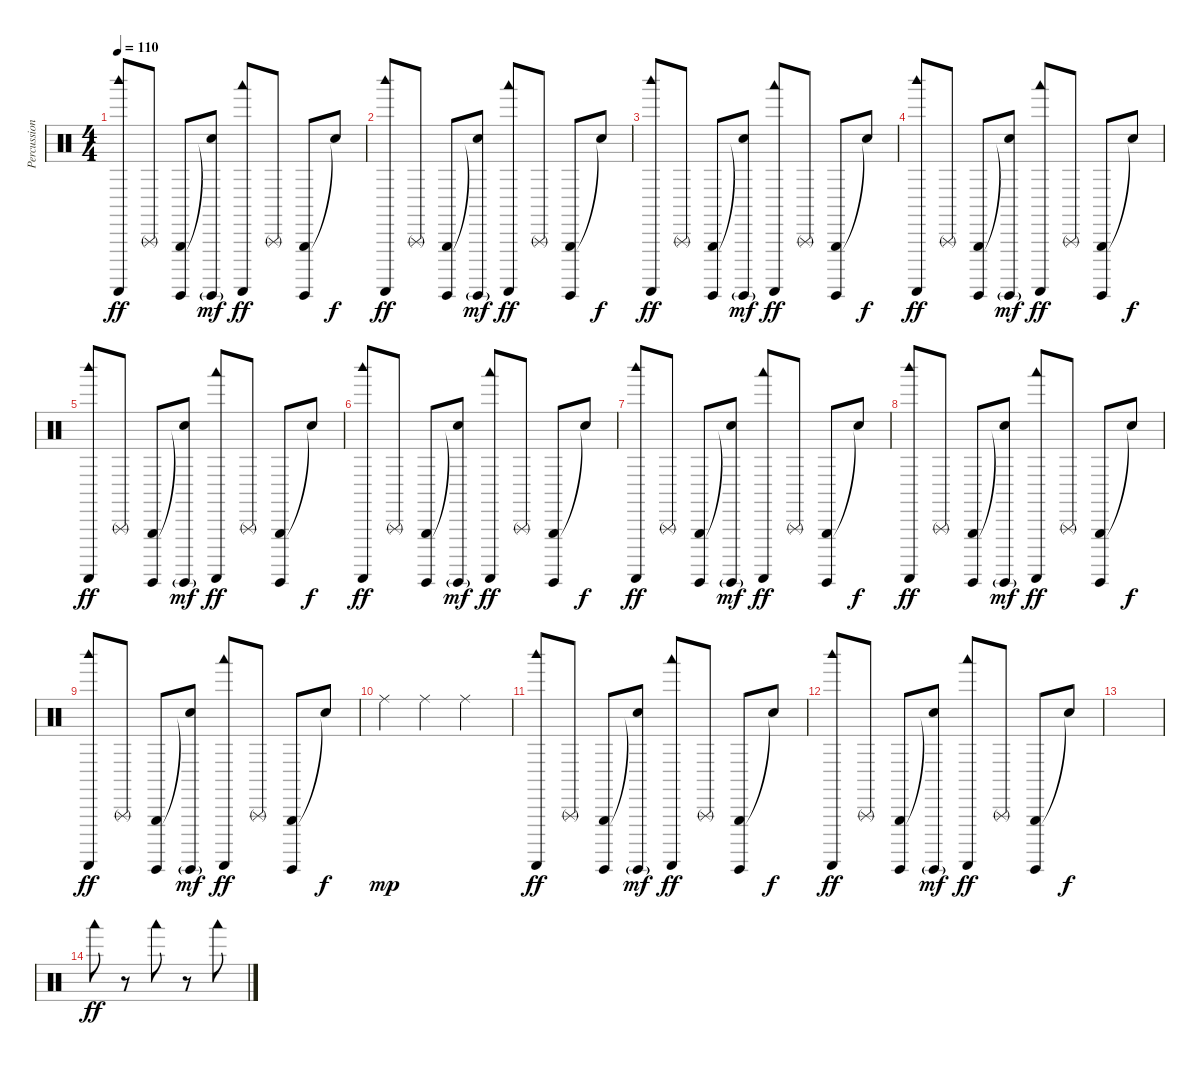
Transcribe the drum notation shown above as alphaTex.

\track ("Percussion" "Percussion") {instrument percussion}
\staff {score}
\articulation defaults
\ts (4 4)
\tempo 110
\clef neutral
\ks c
("Woodblock high (hit)" "Guiro (scrap-return)").8{dy ff} "Triangle (rnute)".8 ("Triangle (hit)" "Guiro (hit)").8 ("Snare (hit)"{t} "Guiro (hit)"{g}).8{dy mf} ("Woodblock low (hit)" "Guiro (scrap-return)").8{dy ff} "Triangle (rnute)".8 ("Triangle (hit)" "Guiro (hit)").8 "Snare (hit)"{t}.8{dy f} |
("Woodblock high (hit)" "Guiro (scrap-return)").8{dy ff} "Triangle (rnute)".8 ("Triangle (hit)" "Guiro (hit)").8 ("Snare (hit)"{t} "Guiro (hit)"{g}).8{dy mf} ("Woodblock low (hit)" "Guiro (scrap-return)").8{dy ff} "Triangle (rnute)".8 ("Triangle (hit)" "Guiro (hit)").8 "Snare (hit)"{t}.8{dy f} |
("Woodblock high (hit)" "Guiro (scrap-return)").8{dy ff} "Triangle (rnute)".8 ("Triangle (hit)" "Guiro (hit)").8 ("Snare (hit)"{t} "Guiro (hit)"{g}).8{dy mf} ("Woodblock low (hit)" "Guiro (scrap-return)").8{dy ff} "Triangle (rnute)".8 ("Triangle (hit)" "Guiro (hit)").8 "Snare (hit)"{t}.8{dy f} |
("Woodblock high (hit)" "Guiro (scrap-return)").8{dy ff} "Triangle (rnute)".8 ("Triangle (hit)" "Guiro (hit)").8 ("Snare (hit)"{t} "Guiro (hit)"{g}).8{dy mf} ("Woodblock low (hit)" "Guiro (scrap-return)").8{dy ff} "Triangle (rnute)".8 ("Triangle (hit)" "Guiro (hit)").8 "Snare (hit)"{t}.8{dy f} |
("Woodblock high (hit)" "Guiro (scrap-return)").8{dy ff} "Triangle (rnute)".8 ("Triangle (hit)" "Guiro (hit)").8 ("Snare (hit)"{t} "Guiro (hit)"{g}).8{dy mf} ("Woodblock low (hit)" "Guiro (scrap-return)").8{dy ff} "Triangle (rnute)".8 ("Triangle (hit)" "Guiro (hit)").8 "Snare (hit)"{t}.8{dy f} |
("Woodblock high (hit)" "Guiro (scrap-return)").8{dy ff} "Triangle (rnute)".8 ("Triangle (hit)" "Guiro (hit)").8 ("Snare (hit)"{t} "Guiro (hit)"{g}).8{dy mf} ("Woodblock low (hit)" "Guiro (scrap-return)").8{dy ff} "Triangle (rnute)".8 ("Triangle (hit)" "Guiro (hit)").8 "Snare (hit)"{t}.8{dy f} |
("Woodblock high (hit)" "Guiro (scrap-return)").8{dy ff} "Triangle (rnute)".8 ("Triangle (hit)" "Guiro (hit)").8 ("Snare (hit)"{t} "Guiro (hit)"{g}).8{dy mf} ("Woodblock low (hit)" "Guiro (scrap-return)").8{dy ff} "Triangle (rnute)".8 ("Triangle (hit)" "Guiro (hit)").8 "Snare (hit)"{t}.8{dy f} |
("Woodblock high (hit)" "Guiro (scrap-return)").8{dy ff} "Triangle (rnute)".8 ("Triangle (hit)" "Guiro (hit)").8 ("Snare (hit)"{t} "Guiro (hit)"{g}).8{dy mf} ("Woodblock low (hit)" "Guiro (scrap-return)").8{dy ff} "Triangle (rnute)".8 ("Triangle (hit)" "Guiro (hit)").8 "Snare (hit)"{t}.8{dy f} |
("Woodblock high (hit)" "Guiro (scrap-return)").8{dy ff} "Triangle (rnute)".8 ("Triangle (hit)" "Guiro (hit)").8 ("Snare (hit)"{t} "Guiro (hit)"{g}).8{dy mf} ("Woodblock low (hit)" "Guiro (scrap-return)").8{dy ff} "Triangle (rnute)".8 ("Triangle (hit)" "Guiro (hit)").8 "Snare (hit)"{t}.8{dy f} |
"Ride (middle)".4{dy mp} "Ride (middle)".4 "Ride (middle)".2 |
("Woodblock high (hit)" "Guiro (scrap-return)").8{dy ff} "Triangle (rnute)".8 ("Triangle (hit)" "Guiro (hit)").8 ("Snare (hit)"{t} "Guiro (hit)"{g}).8{dy mf} ("Woodblock low (hit)" "Guiro (scrap-return)").8{dy ff} "Triangle (rnute)".8 ("Triangle (hit)" "Guiro (hit)").8 "Snare (hit)"{t}.8{dy f} |
("Woodblock high (hit)" "Guiro (scrap-return)").8{dy ff} "Triangle (rnute)".8 ("Triangle (hit)" "Guiro (hit)").8 ("Snare (hit)"{t} "Guiro (hit)"{g}).8{dy mf} ("Woodblock low (hit)" "Guiro (scrap-return)").8{dy ff} "Triangle (rnute)".8 ("Triangle (hit)" "Guiro (hit)").8 "Snare (hit)"{t}.8{dy f} |
|
"Woodblock low (hit)".8{dy ff} r.8 "Woodblock low (hit)".8 r.8 "Woodblock low (hit)".8
